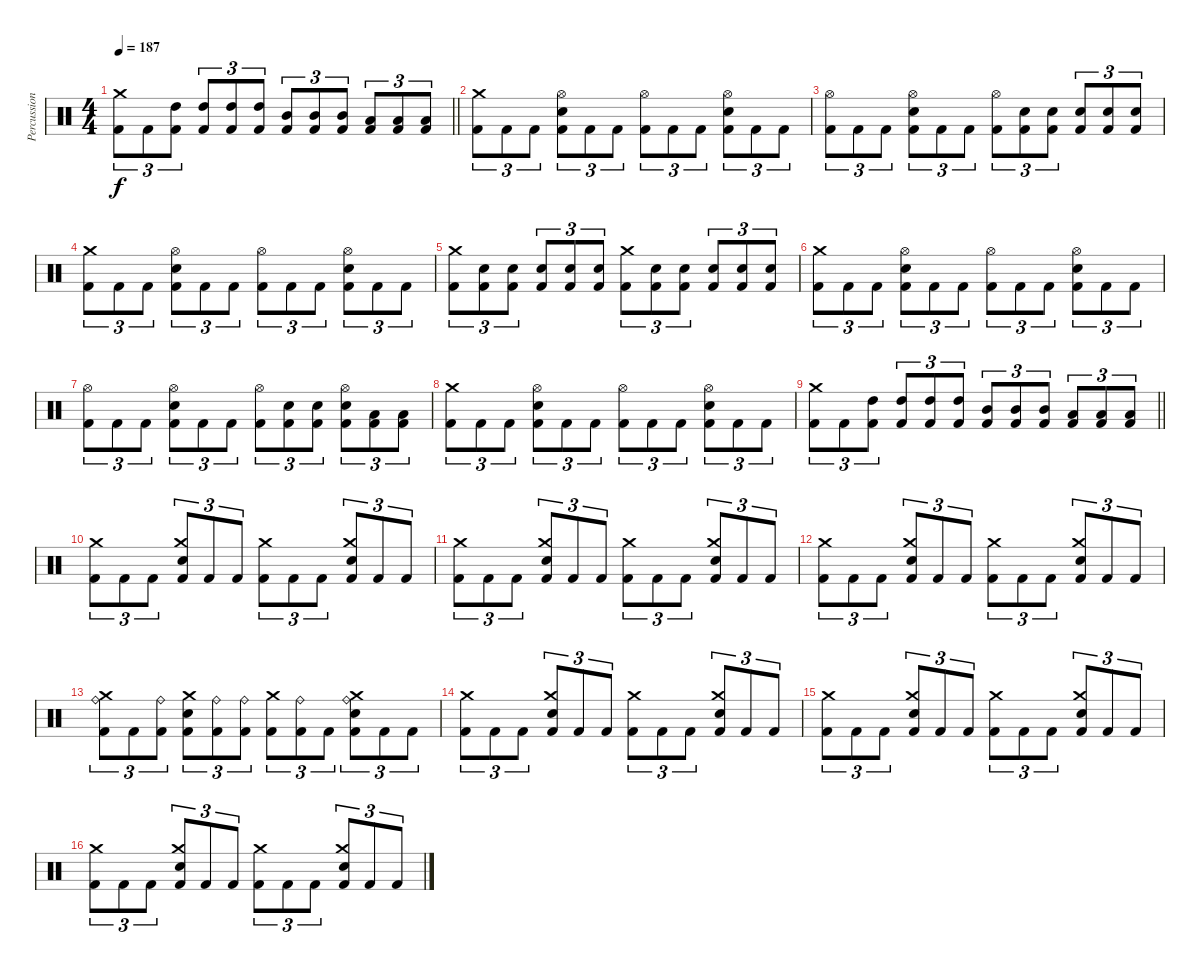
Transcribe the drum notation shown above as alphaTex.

\track ("Percussion" "Percussion") {instrument percussion}
\staff {score}
\articulation defaults
\ts (4 4)
\tempo 187
\clef neutral
\barLineRight lightlight
\ks c
("Kick (hit) 2" "Crash medium (hit)").8{tu (3 2) dy f} "Kick (hit) 2".8{tu (3 2)} ("Kick (hit) 2" "High Tom (hit)").8{tu (3 2)} ("Kick (hit) 2" "High Tom (hit)").8{tu (3 2)} ("Kick (hit) 2" "High Tom (hit)").8{tu (3 2)} ("Kick (hit) 2" "High Tom (hit)").8{tu (3 2)} ("Kick (hit) 2" "Mid Tom (hit)").8{tu (3 2)} ("Kick (hit) 2" "Mid Tom (hit)").8{tu (3 2)} ("Kick (hit) 2" "Mid Tom (hit)").8{tu (3 2)} ("Kick (hit) 2" "Low Tom (hit)").8{tu (3 2)} ("Kick (hit) 2" "Low Tom (hit)").8{tu (3 2)} ("Kick (hit) 2" "Low Tom (hit)").8{tu (3 2)} |
\section ("" "")
("Kick (hit) 2" "Crash medium (hit)").8{tu (3 2)} "Kick (hit) 2".8{tu (3 2)} "Kick (hit) 2".8{tu (3 2)} ("Kick (hit) 2" "Snare (hit) 2" "Hi-Hat (open)").8{tu (3 2)} "Kick (hit) 2".8{tu (3 2)} "Kick (hit) 2".8{tu (3 2)} ("Kick (hit) 2" "Hi-Hat (open)").8{tu (3 2)} "Kick (hit) 2".8{tu (3 2)} "Kick (hit) 2".8{tu (3 2)} ("Kick (hit) 2" "Snare (hit) 2" "Hi-Hat (open)").8{tu (3 2)} "Kick (hit) 2".8{tu (3 2)} "Kick (hit) 2".8{tu (3 2)} |
("Kick (hit) 2" "Hi-Hat (open)").8{tu (3 2)} "Kick (hit) 2".8{tu (3 2)} "Kick (hit) 2".8{tu (3 2)} ("Kick (hit) 2" "Snare (hit) 2" "Hi-Hat (open)").8{tu (3 2)} "Kick (hit) 2".8{tu (3 2)} "Kick (hit) 2".8{tu (3 2)} ("Kick (hit) 2" "Hi-Hat (open)").8{tu (3 2)} ("Kick (hit) 2" "Snare (hit) 2").8{tu (3 2)} ("Kick (hit) 2" "Snare (hit) 2").8{tu (3 2)} ("Kick (hit) 2" "Snare (hit) 2").8{tu (3 2)} ("Kick (hit) 2" "Snare (hit) 2").8{tu (3 2)} ("Kick (hit) 2" "Snare (hit) 2").8{tu (3 2)} |
("Kick (hit) 2" "Crash medium (hit)").8{tu (3 2)} "Kick (hit) 2".8{tu (3 2)} "Kick (hit) 2".8{tu (3 2)} ("Kick (hit) 2" "Snare (hit) 2" "Hi-Hat (open)").8{tu (3 2)} "Kick (hit) 2".8{tu (3 2)} "Kick (hit) 2".8{tu (3 2)} ("Kick (hit) 2" "Hi-Hat (open)").8{tu (3 2)} "Kick (hit) 2".8{tu (3 2)} "Kick (hit) 2".8{tu (3 2)} ("Kick (hit) 2" "Snare (hit) 2" "Hi-Hat (open)").8{tu (3 2)} "Kick (hit) 2".8{tu (3 2)} "Kick (hit) 2".8{tu (3 2)} |
("Kick (hit) 2" "Crash medium (hit)").8{tu (3 2)} ("Kick (hit) 2" "Snare (hit) 2").8{tu (3 2)} ("Kick (hit) 2" "Snare (hit) 2").8{tu (3 2)} ("Kick (hit) 2" "Snare (hit) 2").8{tu (3 2)} ("Kick (hit) 2" "Snare (hit) 2").8{tu (3 2)} ("Kick (hit) 2" "Snare (hit) 2").8{tu (3 2)} ("Kick (hit) 2" "Crash medium (hit)").8{tu (3 2)} ("Kick (hit) 2" "Snare (hit) 2").8{tu (3 2)} ("Kick (hit) 2" "Snare (hit) 2").8{tu (3 2)} ("Kick (hit) 2" "Snare (hit) 2").8{tu (3 2)} ("Kick (hit) 2" "Snare (hit) 2").8{tu (3 2)} ("Kick (hit) 2" "Snare (hit) 2").8{tu (3 2)} |
("Kick (hit) 2" "Crash medium (hit)").8{tu (3 2)} "Kick (hit) 2".8{tu (3 2)} "Kick (hit) 2".8{tu (3 2)} ("Kick (hit) 2" "Snare (hit) 2" "Hi-Hat (open)").8{tu (3 2)} "Kick (hit) 2".8{tu (3 2)} "Kick (hit) 2".8{tu (3 2)} ("Kick (hit) 2" "Hi-Hat (open)").8{tu (3 2)} "Kick (hit) 2".8{tu (3 2)} "Kick (hit) 2".8{tu (3 2)} ("Kick (hit) 2" "Snare (hit) 2" "Hi-Hat (open)").8{tu (3 2)} "Kick (hit) 2".8{tu (3 2)} "Kick (hit) 2".8{tu (3 2)} |
("Kick (hit) 2" "Hi-Hat (open)").8{tu (3 2)} "Kick (hit) 2".8{tu (3 2)} "Kick (hit) 2".8{tu (3 2)} ("Kick (hit) 2" "Snare (hit) 2" "Hi-Hat (open)").8{tu (3 2)} "Kick (hit) 2".8{tu (3 2)} "Kick (hit) 2".8{tu (3 2)} ("Kick (hit) 2" "Hi-Hat (open)").8{tu (3 2)} ("Kick (hit) 2" "Snare (hit) 2").8{tu (3 2)} ("Kick (hit) 2" "Snare (hit) 2").8{tu (3 2)} ("Kick (hit) 2" "Snare (hit) 2" "Hi-Hat (open)").8{tu (3 2)} ("Kick (hit) 2" "Low Floor Tom (hit)").8{tu (3 2)} ("Kick (hit) 2" "Low Floor Tom (hit)").8{tu (3 2)} |
("Kick (hit) 2" "Crash medium (hit)").8{tu (3 2)} "Kick (hit) 2".8{tu (3 2)} "Kick (hit) 2".8{tu (3 2)} ("Kick (hit) 2" "Snare (hit) 2" "Hi-Hat (open)").8{tu (3 2)} "Kick (hit) 2".8{tu (3 2)} "Kick (hit) 2".8{tu (3 2)} ("Kick (hit) 2" "Hi-Hat (open)").8{tu (3 2)} "Kick (hit) 2".8{tu (3 2)} "Kick (hit) 2".8{tu (3 2)} ("Kick (hit) 2" "Snare (hit) 2" "Hi-Hat (open)").8{tu (3 2)} "Kick (hit) 2".8{tu (3 2)} "Kick (hit) 2".8{tu (3 2)} |
\barLineRight lightlight
("Kick (hit) 2" "Crash medium (hit)").8{tu (3 2)} "Kick (hit) 2".8{tu (3 2)} ("Kick (hit) 2" "High Tom (hit)").8{tu (3 2)} ("Kick (hit) 2" "High Tom (hit)").8{tu (3 2)} ("Kick (hit) 2" "High Tom (hit)").8{tu (3 2)} ("Kick (hit) 2" "High Tom (hit)").8{tu (3 2)} ("Kick (hit) 2" "Mid Tom (hit)").8{tu (3 2)} ("Kick (hit) 2" "Mid Tom (hit)").8{tu (3 2)} ("Kick (hit) 2" "Mid Tom (hit)").8{tu (3 2)} ("Kick (hit) 2" "Low Tom (hit)").8{tu (3 2)} ("Kick (hit) 2" "Low Tom (hit)").8{tu (3 2)} ("Kick (hit) 2" "Low Tom (hit)").8{tu (3 2)} |
\section ("" "")
("Kick (hit) 2" "Crash medium (hit)").8{tu (3 2)} "Kick (hit) 2".8{tu (3 2)} "Kick (hit) 2".8{tu (3 2)} ("Kick (hit) 2" "Snare (hit) 2" "Crash medium (hit)").8{tu (3 2)} "Kick (hit) 2".8{tu (3 2)} "Kick (hit) 2".8{tu (3 2)} ("Kick (hit) 2" "Crash medium (hit)").8{tu (3 2)} "Kick (hit) 2".8{tu (3 2)} "Kick (hit) 2".8{tu (3 2)} ("Kick (hit) 2" "Snare (hit) 2" "Crash medium (hit)").8{tu (3 2)} "Kick (hit) 2".8{tu (3 2)} "Kick (hit) 2".8{tu (3 2)} |
("Kick (hit) 2" "Crash medium (hit)").8{tu (3 2)} "Kick (hit) 2".8{tu (3 2)} "Kick (hit) 2".8{tu (3 2)} ("Kick (hit) 2" "Snare (hit) 2" "Crash medium (hit)").8{tu (3 2)} "Kick (hit) 2".8{tu (3 2)} "Kick (hit) 2".8{tu (3 2)} ("Kick (hit) 2" "Crash medium (hit)").8{tu (3 2)} "Kick (hit) 2".8{tu (3 2)} "Kick (hit) 2".8{tu (3 2)} ("Kick (hit) 2" "Snare (hit) 2" "Crash medium (hit)").8{tu (3 2)} "Kick (hit) 2".8{tu (3 2)} "Kick (hit) 2".8{tu (3 2)} |
("Kick (hit) 2" "Crash medium (hit)").8{tu (3 2)} "Kick (hit) 2".8{tu (3 2)} "Kick (hit) 2".8{tu (3 2)} ("Kick (hit) 2" "Snare (hit) 2" "Crash medium (hit)").8{tu (3 2)} "Kick (hit) 2".8{tu (3 2)} "Kick (hit) 2".8{tu (3 2)} ("Kick (hit) 2" "Crash medium (hit)").8{tu (3 2)} "Kick (hit) 2".8{tu (3 2)} "Kick (hit) 2".8{tu (3 2)} ("Kick (hit) 2" "Snare (hit) 2" "Crash medium (hit)").8{tu (3 2)} "Kick (hit) 2".8{tu (3 2)} "Kick (hit) 2".8{tu (3 2)} |
("Kick (hit) 2" "Crash medium (hit)" "Ride (bell)").8{tu (3 2)} "Kick (hit) 2".8{tu (3 2)} ("Kick (hit) 2" "Ride (bell)").8{tu (3 2)} ("Kick (hit) 2" "Snare (hit) 2" "Crash medium (hit)").8{tu (3 2)} ("Kick (hit) 2" "Ride (bell)").8{tu (3 2)} ("Kick (hit) 2" "Ride (bell)").8{tu (3 2)} ("Kick (hit) 2" "Crash medium (hit)").8{tu (3 2)} ("Kick (hit) 2" "Ride (bell)").8{tu (3 2)} "Kick (hit) 2".8{tu (3 2)} ("Kick (hit) 2" "Snare (hit) 2" "Crash medium (hit)" "Ride (bell)").8{tu (3 2)} "Kick (hit) 2".8{tu (3 2)} "Kick (hit) 2".8{tu (3 2)} |
("Kick (hit) 2" "Crash medium (hit)").8{tu (3 2)} "Kick (hit) 2".8{tu (3 2)} "Kick (hit) 2".8{tu (3 2)} ("Kick (hit) 2" "Snare (hit) 2" "Crash medium (hit)").8{tu (3 2)} "Kick (hit) 2".8{tu (3 2)} "Kick (hit) 2".8{tu (3 2)} ("Kick (hit) 2" "Crash medium (hit)").8{tu (3 2)} "Kick (hit) 2".8{tu (3 2)} "Kick (hit) 2".8{tu (3 2)} ("Kick (hit) 2" "Snare (hit) 2" "Crash medium (hit)").8{tu (3 2)} "Kick (hit) 2".8{tu (3 2)} "Kick (hit) 2".8{tu (3 2)} |
("Kick (hit) 2" "Crash medium (hit)").8{tu (3 2)} "Kick (hit) 2".8{tu (3 2)} "Kick (hit) 2".8{tu (3 2)} ("Kick (hit) 2" "Snare (hit) 2" "Crash medium (hit)").8{tu (3 2)} "Kick (hit) 2".8{tu (3 2)} "Kick (hit) 2".8{tu (3 2)} ("Kick (hit) 2" "Crash medium (hit)").8{tu (3 2)} "Kick (hit) 2".8{tu (3 2)} "Kick (hit) 2".8{tu (3 2)} ("Kick (hit) 2" "Snare (hit) 2" "Crash medium (hit)").8{tu (3 2)} "Kick (hit) 2".8{tu (3 2)} "Kick (hit) 2".8{tu (3 2)} |
("Kick (hit) 2" "Crash medium (hit)").8{tu (3 2)} "Kick (hit) 2".8{tu (3 2)} "Kick (hit) 2".8{tu (3 2)} ("Kick (hit) 2" "Snare (hit) 2" "Crash medium (hit)").8{tu (3 2)} "Kick (hit) 2".8{tu (3 2)} "Kick (hit) 2".8{tu (3 2)} ("Kick (hit) 2" "Crash medium (hit)").8{tu (3 2)} "Kick (hit) 2".8{tu (3 2)} "Kick (hit) 2".8{tu (3 2)} ("Kick (hit) 2" "Snare (hit) 2" "Crash medium (hit)").8{tu (3 2)} "Kick (hit) 2".8{tu (3 2)} "Kick (hit) 2".8{tu (3 2)}
